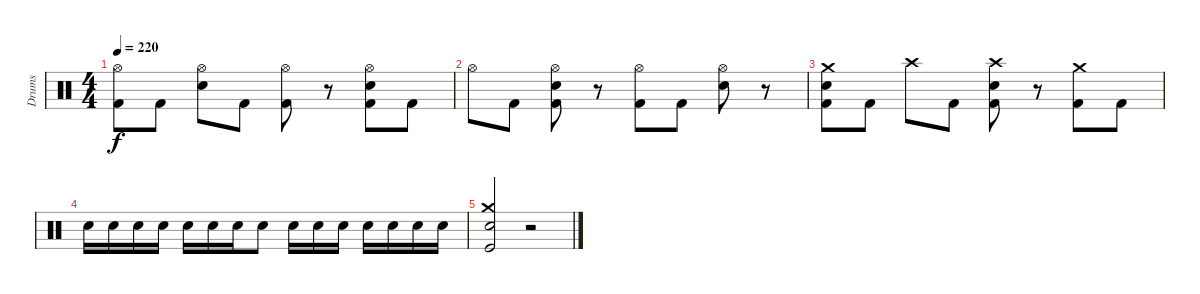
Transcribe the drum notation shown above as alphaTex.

\track ("Drums" "Drums") {instrument percussion}
\staff {score}
\articulation defaults
\ts (4 4)
\tempo 220
\clef neutral
\ks c
("Hi-Hat (open)" "Kick (hit) 2").8{dy f} "Kick (hit) 2".8 ("Hi-Hat (open)" "Electric Snare (hit)").8 "Kick (hit) 2".8 ("Hi-Hat (open)" "Kick (hit) 2").8 r.8 ("Hi-Hat (open)" "Electric Snare (hit)" "Kick (hit) 2").8 "Kick (hit) 2".8 |
"Hi-Hat (open)".8 "Kick (hit) 2".8 ("Hi-Hat (open)" "Electric Snare (hit)" "Kick (hit) 2").8 r.8 ("Hi-Hat (open)" "Kick (hit) 2").8 "Kick (hit) 2".8 ("Hi-Hat (open)" "Electric Snare (hit)").8 r.8 |
("Crash medium (hit)" "Electric Snare (hit)" "Kick (hit) 2").8 "Kick (hit) 2".8 "Crash high (hit)".8 "Kick (hit) 2".8 ("Crash high (hit)" "Electric Snare (hit)" "Kick (hit) 2").8 r.8 ("Crash medium (hit)" "Kick (hit) 2").8 "Kick (hit) 2".8 |
"Electric Snare (hit)".16 "Electric Snare (hit)".16 "Electric Snare (hit)".16 "Electric Snare (hit)".16 "Electric Snare (hit)".16 "Electric Snare (hit)".16 "Electric Snare (hit)".16 "Electric Snare (hit)".8 "Electric Snare (hit)".16 "Electric Snare (hit)".16 "Electric Snare (hit)".16 "Electric Snare (hit)".16 "Electric Snare (hit)".16 "Electric Snare (hit)".16 "Electric Snare (hit)".16 |
("Crash medium (hit)" "Electric Snare (hit)" "Kick (hit)").2 r.2
